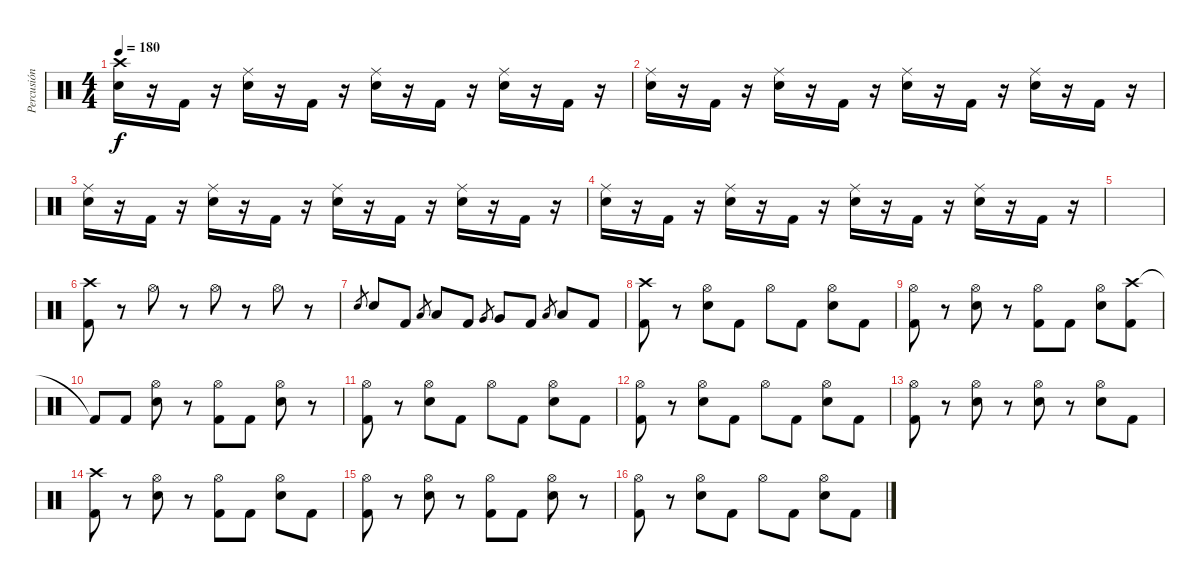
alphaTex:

\track ("Percusión" "Percusión") {instrument percussion}
\staff {score}
\articulation defaults
\ts (4 4)
\tempo 180
\clef neutral
\ks c
("Crash high (hit)" "Electric Snare (hit)").16{dy f} r.16 "Kick (hit) 2".16 r.16 ("Ride (middle)" "Electric Snare (hit)").16 r.16 "Kick (hit) 2".16 r.16 ("Ride (middle)" "Electric Snare (hit)").16 r.16 "Kick (hit) 2".16 r.16 ("Ride (middle)" "Electric Snare (hit)").16 r.16 "Kick (hit) 2".16 r.16 |
("Ride (middle)" "Electric Snare (hit)").16 r.16 "Kick (hit) 2".16 r.16 ("Ride (middle)" "Electric Snare (hit)").16 r.16 "Kick (hit) 2".16 r.16 ("Ride (middle)" "Electric Snare (hit)").16 r.16 "Kick (hit) 2".16 r.16 ("Ride (middle)" "Electric Snare (hit)").16 r.16 "Kick (hit) 2".16 r.16 |
("Ride (middle)" "Electric Snare (hit)").16 r.16 "Kick (hit) 2".16 r.16 ("Ride (middle)" "Electric Snare (hit)").16 r.16 "Kick (hit) 2".16 r.16 ("Ride (middle)" "Electric Snare (hit)").16 r.16 "Kick (hit) 2".16 r.16 ("Ride (middle)" "Electric Snare (hit)").16 r.16 "Kick (hit) 2".16 r.16 |
("Ride (middle)" "Electric Snare (hit)").16 r.16 "Kick (hit) 2".16 r.16 ("Ride (middle)" "Electric Snare (hit)").16 r.16 "Kick (hit) 2".16 r.16 ("Ride (middle)" "Electric Snare (hit)").16 r.16 "Kick (hit) 2".16 r.16 ("Ride (middle)" "Electric Snare (hit)").16 r.16 "Kick (hit) 2".16 r.16 |
|
("Crash high (hit)" "Kick (hit) 2").8 r.8 "Hi-Hat (open)".8 r.8 "Hi-Hat (open)".8 r.8 "Hi-Hat (open)".8 r.8 |
"Electric Snare (hit)".8{gr} "Electric Snare (hit)".8 "Kick (hit) 2".8 "Low Tom (hit)".8{gr} "Low Tom (hit)".8 "Kick (hit) 2".8 "Very Low Tom (hit)".8{gr} "Very Low Tom (hit)".8 "Kick (hit) 2".8 "Low Floor Tom (hit)".8{gr} "Low Floor Tom (hit)".8 "Kick (hit) 2".8 |
("Crash high (hit)" "Kick (hit) 2").8 r.8 ("Hi-Hat (open)" "Electric Snare (hit)").8 "Kick (hit) 2".8 "Hi-Hat (open)".8 "Kick (hit) 2".8 ("Hi-Hat (open)" "Electric Snare (hit)").8 "Kick (hit) 2".8 |
("Hi-Hat (open)" "Kick (hit) 2").8 r.8 ("Hi-Hat (open)" "Electric Snare (hit)").8 r.8 ("Hi-Hat (open)" "Kick (hit) 2").8 "Kick (hit) 2".8 ("Hi-Hat (open)" "Electric Snare (hit)").8 ("Crash high (hit)" "Kick (hit) 2").8 |
"Kick (hit) 2"{t}.8 "Kick (hit) 2".8 ("Hi-Hat (open)" "Electric Snare (hit)").8 r.8 ("Hi-Hat (open)" "Kick (hit) 2").8 "Kick (hit) 2".8 ("Hi-Hat (open)" "Electric Snare (hit)").8 r.8 |
("Hi-Hat (open)" "Kick (hit) 2").8 r.8 ("Hi-Hat (open)" "Electric Snare (hit)").8 "Kick (hit) 2".8 "Hi-Hat (open)".8 "Kick (hit) 2".8 ("Hi-Hat (open)" "Electric Snare (hit)").8 "Kick (hit) 2".8 |
("Hi-Hat (open)" "Kick (hit) 2").8 r.8 ("Hi-Hat (open)" "Electric Snare (hit)").8 "Kick (hit) 2".8 "Hi-Hat (open)".8 "Kick (hit) 2".8 ("Hi-Hat (open)" "Electric Snare (hit)").8 "Kick (hit) 2".8 |
("Hi-Hat (open)" "Kick (hit) 2").8 r.8 ("Hi-Hat (open)" "Electric Snare (hit)").8 r.8 ("Hi-Hat (open)" "Electric Snare (hit)").8 r.8 ("Hi-Hat (open)" "Electric Snare (hit)").8 "Kick (hit) 2".8 |
("Crash high (hit)" "Kick (hit) 2").8 r.8 ("Hi-Hat (open)" "Electric Snare (hit)").8 r.8 ("Hi-Hat (open)" "Kick (hit) 2").8 "Kick (hit) 2".8 ("Hi-Hat (open)" "Electric Snare (hit)").8 "Kick (hit) 2".8 |
("Hi-Hat (open)" "Kick (hit) 2").8 r.8 ("Hi-Hat (open)" "Electric Snare (hit)").8 r.8 ("Hi-Hat (open)" "Kick (hit) 2").8 "Kick (hit) 2".8 ("Hi-Hat (open)" "Electric Snare (hit)").8 r.8 |
("Hi-Hat (open)" "Kick (hit) 2").8 r.8 ("Hi-Hat (open)" "Electric Snare (hit)").8 "Kick (hit) 2".8 "Hi-Hat (open)".8 "Kick (hit) 2".8 ("Hi-Hat (open)" "Electric Snare (hit)").8 "Kick (hit) 2".8
